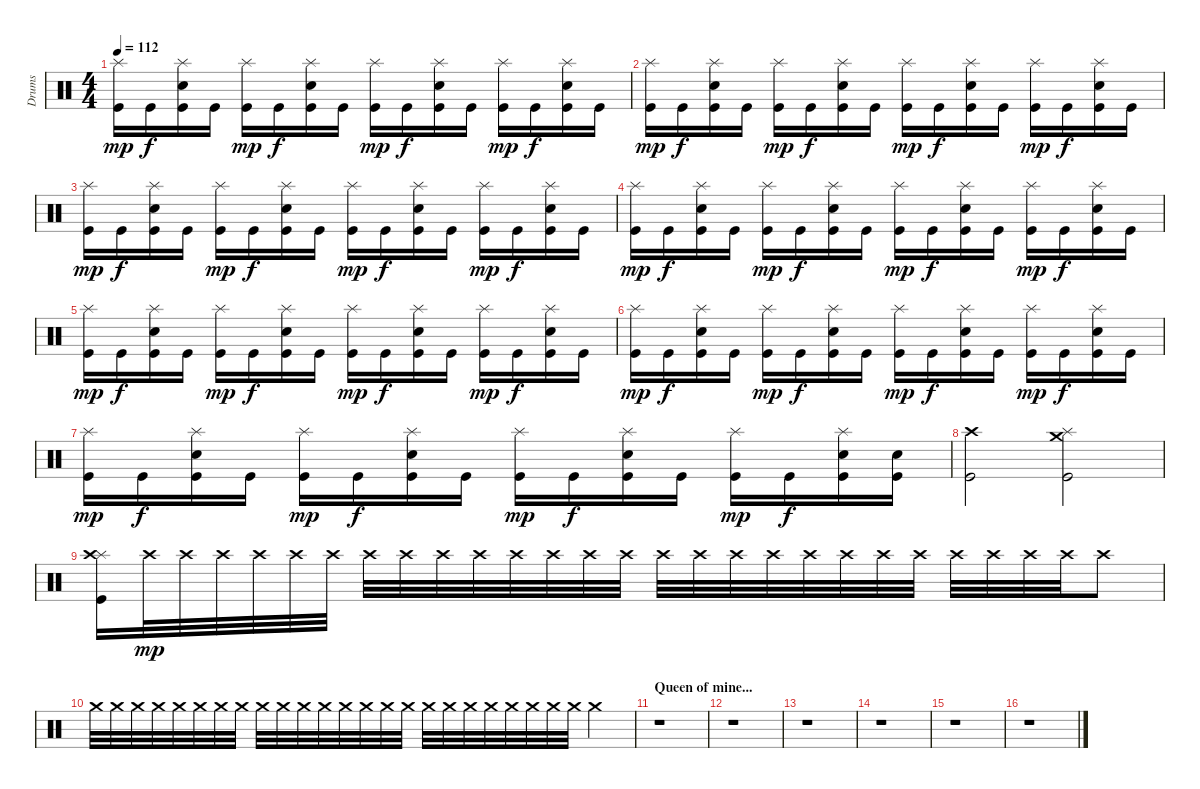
\track ("Drums" "Drums") {instrument percussion}
\staff {score}
\articulation defaults
\ts (4 4)
\tempo 112
\clef neutral
\ks c
("Splash (hit)" "Kick (hit)").16{dy mp} "Kick (hit)".16{dy f} ("Splash (hit)" "Electric Snare (hit)" "Kick (hit)").16 "Kick (hit)".16 ("Splash (hit)" "Kick (hit)").16{dy mp} "Kick (hit)".16{dy f} ("Splash (hit)" "Electric Snare (hit)" "Kick (hit)").16 "Kick (hit)".16 ("Splash (hit)" "Kick (hit)").16{dy mp} "Kick (hit)".16{dy f} ("Splash (hit)" "Electric Snare (hit)" "Kick (hit)").16 "Kick (hit)".16 ("Splash (hit)" "Kick (hit)").16{dy mp} "Kick (hit)".16{dy f} ("Splash (hit)" "Electric Snare (hit)" "Kick (hit)").16 "Kick (hit)".16 |
("Splash (hit)" "Kick (hit)").16{dy mp} "Kick (hit)".16{dy f} ("Splash (hit)" "Electric Snare (hit)" "Kick (hit)").16 "Kick (hit)".16 ("Splash (hit)" "Kick (hit)").16{dy mp} "Kick (hit)".16{dy f} ("Splash (hit)" "Electric Snare (hit)" "Kick (hit)").16 "Kick (hit)".16 ("Splash (hit)" "Kick (hit)").16{dy mp} "Kick (hit)".16{dy f} ("Splash (hit)" "Electric Snare (hit)" "Kick (hit)").16 "Kick (hit)".16 ("Splash (hit)" "Kick (hit)").16{dy mp} "Kick (hit)".16{dy f} ("Splash (hit)" "Electric Snare (hit)" "Kick (hit)").16 "Kick (hit)".16 |
("Splash (hit)" "Kick (hit)").16{dy mp} "Kick (hit)".16{dy f} ("Splash (hit)" "Electric Snare (hit)" "Kick (hit)").16 "Kick (hit)".16 ("Splash (hit)" "Kick (hit)").16{dy mp} "Kick (hit)".16{dy f} ("Splash (hit)" "Electric Snare (hit)" "Kick (hit)").16 "Kick (hit)".16 ("Splash (hit)" "Kick (hit)").16{dy mp} "Kick (hit)".16{dy f} ("Splash (hit)" "Electric Snare (hit)" "Kick (hit)").16 "Kick (hit)".16 ("Splash (hit)" "Kick (hit)").16{dy mp} "Kick (hit)".16{dy f} ("Splash (hit)" "Electric Snare (hit)" "Kick (hit)").16 "Kick (hit)".16 |
("Splash (hit)" "Kick (hit)").16{dy mp} "Kick (hit)".16{dy f} ("Splash (hit)" "Electric Snare (hit)" "Kick (hit)").16 "Kick (hit)".16 ("Splash (hit)" "Kick (hit)").16{dy mp} "Kick (hit)".16{dy f} ("Splash (hit)" "Electric Snare (hit)" "Kick (hit)").16 "Kick (hit)".16 ("Splash (hit)" "Kick (hit)").16{dy mp} "Kick (hit)".16{dy f} ("Splash (hit)" "Electric Snare (hit)" "Kick (hit)").16 "Kick (hit)".16 ("Splash (hit)" "Kick (hit)").16{dy mp} "Kick (hit)".16{dy f} ("Splash (hit)" "Electric Snare (hit)" "Kick (hit)").16 "Kick (hit)".16 |
("Splash (hit)" "Kick (hit)").16{dy mp} "Kick (hit)".16{dy f} ("Splash (hit)" "Electric Snare (hit)" "Kick (hit)").16 "Kick (hit)".16 ("Splash (hit)" "Kick (hit)").16{dy mp} "Kick (hit)".16{dy f} ("Splash (hit)" "Electric Snare (hit)" "Kick (hit)").16 "Kick (hit)".16 ("Splash (hit)" "Kick (hit)").16{dy mp} "Kick (hit)".16{dy f} ("Splash (hit)" "Electric Snare (hit)" "Kick (hit)").16 "Kick (hit)".16 ("Splash (hit)" "Kick (hit)").16{dy mp} "Kick (hit)".16{dy f} ("Splash (hit)" "Electric Snare (hit)" "Kick (hit)").16 "Kick (hit)".16 |
("Splash (hit)" "Kick (hit)").16{dy mp} "Kick (hit)".16{dy f} ("Splash (hit)" "Electric Snare (hit)" "Kick (hit)").16 "Kick (hit)".16 ("Splash (hit)" "Kick (hit)").16{dy mp} "Kick (hit)".16{dy f} ("Splash (hit)" "Electric Snare (hit)" "Kick (hit)").16 "Kick (hit)".16 ("Splash (hit)" "Kick (hit)").16{dy mp} "Kick (hit)".16{dy f} ("Splash (hit)" "Electric Snare (hit)" "Kick (hit)").16 "Kick (hit)".16 ("Splash (hit)" "Kick (hit)").16{dy mp} "Kick (hit)".16{dy f} ("Splash (hit)" "Electric Snare (hit)" "Kick (hit)").16 "Kick (hit)".16 |
("Splash (hit)" "Kick (hit)").16{dy mp} "Kick (hit)".16{dy f} ("Splash (hit)" "Electric Snare (hit)" "Kick (hit)").16 "Kick (hit)".16 ("Splash (hit)" "Kick (hit)").16{dy mp} "Kick (hit)".16{dy f} ("Splash (hit)" "Electric Snare (hit)" "Kick (hit)").16 "Kick (hit)".16 ("Splash (hit)" "Kick (hit)").16{dy mp} "Kick (hit)".16{dy f} ("Splash (hit)" "Electric Snare (hit)" "Kick (hit)").16 "Kick (hit)".16 ("Splash (hit)" "Kick (hit)").16{dy mp} "Kick (hit)".16{dy f} ("Splash (hit)" "Electric Snare (hit)" "Kick (hit)").16 ("Electric Snare (hit)" "Kick (hit)").16 |
("Crash high (hit)" "Kick (hit)").2 ("Crash medium (hit)" "Splash (hit)" "Kick (hit)").2 |
("Splash (hit)" "Crash high (hit)" "Kick (hit)").16 "Crash high (hit)".32{dy mp} "Crash high (hit)".32 "Crash high (hit)".32 "Crash high (hit)".32 "Crash high (hit)".32 "Crash high (hit)".32 "Crash high (hit)".32 "Crash high (hit)".32 "Crash high (hit)".32 "Crash high (hit)".32 "Crash high (hit)".32 "Crash high (hit)".32 "Crash high (hit)".32 "Crash high (hit)".32 "Crash high (hit)".32 "Crash high (hit)".32 "Crash high (hit)".32 "Crash high (hit)".32 "Crash high (hit)".32 "Crash high (hit)".32 "Crash high (hit)".32 "Crash high (hit)".32 "Crash high (hit)".32 "Crash high (hit)".32 "Crash high (hit)".32 "Crash high (hit)".32 "Crash high (hit)".8 |
"Crash medium (hit)".32 "Crash medium (hit)".32 "Crash medium (hit)".32 "Crash medium (hit)".32 "Crash medium (hit)".32 "Crash medium (hit)".32 "Crash medium (hit)".32 "Crash medium (hit)".32 "Crash medium (hit)".32 "Crash medium (hit)".32 "Crash medium (hit)".32 "Crash medium (hit)".32 "Crash medium (hit)".32 "Crash medium (hit)".32 "Crash medium (hit)".32 "Crash medium (hit)".32 "Crash medium (hit)".32 "Crash medium (hit)".32 "Crash medium (hit)".32 "Crash medium (hit)".32 "Crash medium (hit)".32 "Crash medium (hit)".32 "Crash medium (hit)".32 "Crash medium (hit)".32 "Crash medium (hit)".4 |
\section ("" "Queen of mine...")
r.1 |
r.1 |
r.1 |
r.1 |
r.1 |
r.1
